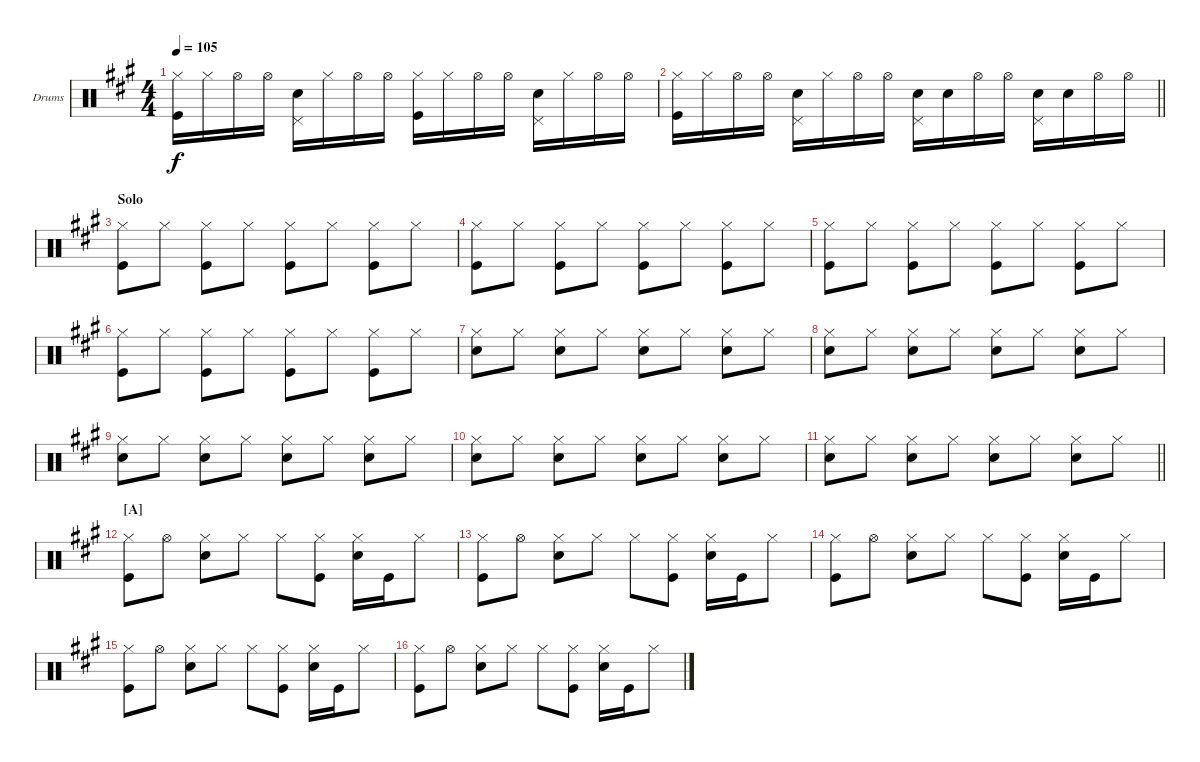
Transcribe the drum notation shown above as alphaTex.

\bracketExtendMode groupsimilarinstruments
\firstSystemTrackNameOrientation horizontal
\otherSystemsTrackNameOrientation horizontal
\track ("Fabrizio Moretti" "Drums") {instrument percussion}
\staff {score}
\articulation defaults
\ts (4 4)
\tempo 105
\clef neutral
\ks a
("Hi-Hat (closed)" "Kick (hit)").16{dy f} "Hi-Hat (closed)".16 "Hi-Hat (open)".16 "Hi-Hat (open)".16 ("Pedal Hi-Hat (hit)" "Snare (hit) 2").16 "Hi-Hat (closed)".16 "Hi-Hat (open)".16 "Hi-Hat (open)".16 ("Hi-Hat (closed)" "Kick (hit)").16 "Hi-Hat (closed)".16 "Hi-Hat (open)".16 "Hi-Hat (open)".16 ("Pedal Hi-Hat (hit)" "Snare (hit) 2").16 "Hi-Hat (closed)".16 "Hi-Hat (open)".16 "Hi-Hat (open)".16 |
\barLineRight lightlight
("Hi-Hat (closed)" "Kick (hit)").16 "Hi-Hat (closed)".16 "Hi-Hat (open)".16 "Hi-Hat (open)".16 ("Pedal Hi-Hat (hit)" "Snare (hit) 2").16 "Hi-Hat (closed)".16 "Hi-Hat (open)".16 "Hi-Hat (open)".16 ("Pedal Hi-Hat (hit)" "Snare (hit) 2").16 "Snare (hit) 2".16 "Hi-Hat (open)".16 "Hi-Hat (open)".16 ("Pedal Hi-Hat (hit)" "Snare (hit) 2").16 "Snare (hit) 2".16 "Hi-Hat (open)".16 "Hi-Hat (open)".16 |
\section ("" "Solo")
("Hi-Hat (closed)" "Kick (hit)").8 "Hi-Hat (closed)".8 ("Hi-Hat (closed)" "Kick (hit)").8 "Hi-Hat (closed)".8 ("Hi-Hat (closed)" "Kick (hit)").8 "Hi-Hat (closed)".8 ("Hi-Hat (closed)" "Kick (hit)").8 "Hi-Hat (closed)".8 |
("Hi-Hat (closed)" "Kick (hit)").8 "Hi-Hat (closed)".8 ("Hi-Hat (closed)" "Kick (hit)").8 "Hi-Hat (closed)".8 ("Hi-Hat (closed)" "Kick (hit)").8 "Hi-Hat (closed)".8 ("Hi-Hat (closed)" "Kick (hit)").8 "Hi-Hat (closed)".8 |
("Hi-Hat (closed)" "Kick (hit)").8 "Hi-Hat (closed)".8 ("Hi-Hat (closed)" "Kick (hit)").8 "Hi-Hat (closed)".8 ("Hi-Hat (closed)" "Kick (hit)").8 "Hi-Hat (closed)".8 ("Hi-Hat (closed)" "Kick (hit)").8 "Hi-Hat (closed)".8 |
("Hi-Hat (closed)" "Kick (hit)").8 "Hi-Hat (closed)".8 ("Hi-Hat (closed)" "Kick (hit)").8 "Hi-Hat (closed)".8 ("Hi-Hat (closed)" "Kick (hit)").8 "Hi-Hat (closed)".8 ("Hi-Hat (closed)" "Kick (hit)").8 "Hi-Hat (closed)".8 |
("Hi-Hat (closed)" "Snare (hit) 2").8 "Hi-Hat (closed)".8 ("Hi-Hat (closed)" "Snare (hit) 2").8 "Hi-Hat (closed)".8 ("Hi-Hat (closed)" "Snare (hit) 2").8 "Hi-Hat (closed)".8 ("Hi-Hat (closed)" "Snare (hit) 2").8 "Hi-Hat (closed)".8 |
("Hi-Hat (closed)" "Snare (hit) 2").8 "Hi-Hat (closed)".8 ("Hi-Hat (closed)" "Snare (hit) 2").8 "Hi-Hat (closed)".8 ("Hi-Hat (closed)" "Snare (hit) 2").8 "Hi-Hat (closed)".8 ("Hi-Hat (closed)" "Snare (hit) 2").8 "Hi-Hat (closed)".8 |
("Hi-Hat (closed)" "Snare (hit) 2").8 "Hi-Hat (closed)".8 ("Hi-Hat (closed)" "Snare (hit) 2").8 "Hi-Hat (closed)".8 ("Hi-Hat (closed)" "Snare (hit) 2").8 "Hi-Hat (closed)".8 ("Hi-Hat (closed)" "Snare (hit) 2").8 "Hi-Hat (closed)".8 |
("Hi-Hat (closed)" "Snare (hit) 2").8 "Hi-Hat (closed)".8 ("Hi-Hat (closed)" "Snare (hit) 2").8 "Hi-Hat (closed)".8 ("Hi-Hat (closed)" "Snare (hit) 2").8 "Hi-Hat (closed)".8 ("Hi-Hat (closed)" "Snare (hit) 2").8 "Hi-Hat (closed)".8 |
\barLineRight lightlight
("Hi-Hat (closed)" "Snare (hit) 2").8 "Hi-Hat (closed)".8 ("Hi-Hat (closed)" "Snare (hit) 2").8 "Hi-Hat (closed)".8 ("Hi-Hat (closed)" "Snare (hit) 2").8 "Hi-Hat (closed)".8 ("Hi-Hat (closed)" "Snare (hit) 2").8 "Hi-Hat (closed)".8 |
\section ("A" "")
("Hi-Hat (closed)" "Kick (hit)").8 "Hi-Hat (open)".8 ("Hi-Hat (closed)" "Snare (hit) 2").8 "Hi-Hat (closed)".8 "Hi-Hat (closed)".8 ("Hi-Hat (closed)" "Kick (hit)").8 ("Hi-Hat (closed)" "Snare (hit) 2").16 "Kick (hit)".16 "Hi-Hat (closed)".8 |
("Hi-Hat (closed)" "Kick (hit)").8 "Hi-Hat (open)".8 ("Hi-Hat (closed)" "Snare (hit) 2").8 "Hi-Hat (closed)".8 "Hi-Hat (closed)".8 ("Hi-Hat (closed)" "Kick (hit)").8 ("Hi-Hat (closed)" "Snare (hit) 2").16 "Kick (hit)".16 "Hi-Hat (closed)".8 |
("Hi-Hat (closed)" "Kick (hit)").8 "Hi-Hat (open)".8 ("Hi-Hat (closed)" "Snare (hit) 2").8 "Hi-Hat (closed)".8 "Hi-Hat (closed)".8 ("Hi-Hat (closed)" "Kick (hit)").8 ("Hi-Hat (closed)" "Snare (hit) 2").16 "Kick (hit)".16 "Hi-Hat (closed)".8 |
("Hi-Hat (closed)" "Kick (hit)").8 "Hi-Hat (open)".8 ("Hi-Hat (closed)" "Snare (hit) 2").8 "Hi-Hat (closed)".8 "Hi-Hat (closed)".8 ("Hi-Hat (closed)" "Kick (hit)").8 ("Hi-Hat (closed)" "Snare (hit) 2").16 "Kick (hit)".16 "Hi-Hat (closed)".8 |
("Hi-Hat (closed)" "Kick (hit)").8 "Hi-Hat (open)".8 ("Hi-Hat (closed)" "Snare (hit) 2").8 "Hi-Hat (closed)".8 "Hi-Hat (closed)".8 ("Hi-Hat (closed)" "Kick (hit)").8 ("Hi-Hat (closed)" "Snare (hit) 2").16 "Kick (hit)".16 "Hi-Hat (closed)".8
